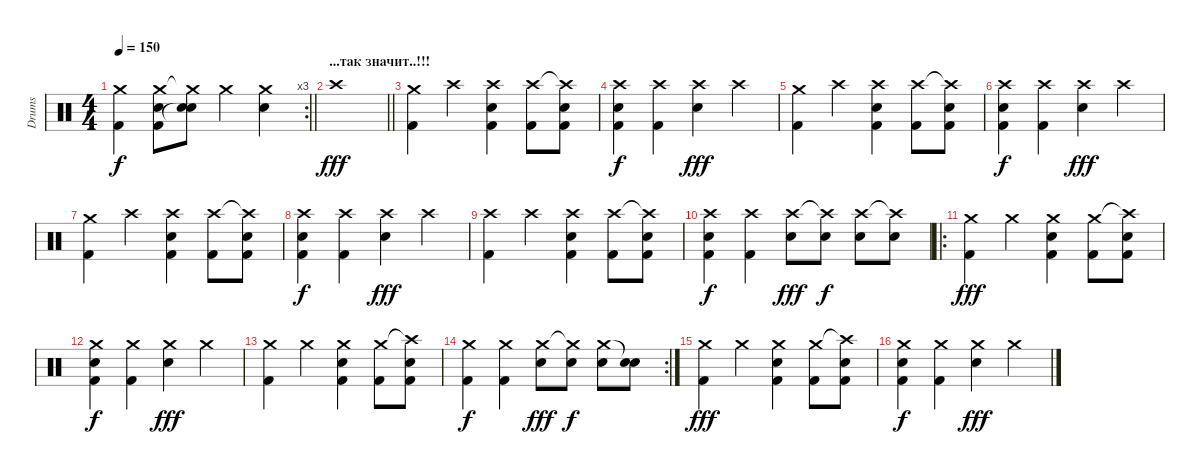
\track ("Drums" "Drums") {instrument percussion}
\staff {score}
\articulation defaults
\rc 3
\ts (4 4)
\tempo 150
\clef neutral
\barLineRight lightlight
\ks c
("Crash medium (hit)" "Kick (hit) 2").4{dy f} ("Crash medium (hit)" "Kick (hit) 2" "Electric Snare (hit)").8 ("Crash medium (hit)"{t} "Snare (hit)"{t} "Electric Snare (hit)").8 "Crash medium (hit)".4 ("Crash medium (hit)" "Electric Snare (hit)").4 |
\section ("" "...так значит..!!!")
\barLineRight lightlight "Crash high (hit)".1{dy fff}
|
("Crash medium (hit)" "Kick (hit) 2").4 "Crash high (hit)".4 ("Crash high (hit)" "Kick (hit) 2" "Electric Snare (hit)").4 ("Crash high (hit)" "Kick (hit) 2").8 ("Crash high (hit)"{t} "Kick (hit) 2" "Electric Snare (hit)").8 |
("Crash high (hit)" "Kick (hit) 2" "Electric Snare (hit)").4{dy f} ("Crash high (hit)" "Kick (hit) 2").4 ("Crash high (hit)" "Electric Snare (hit)").4{dy fff} "Crash high (hit)".4 |
("Crash medium (hit)" "Kick (hit) 2").4 "Crash high (hit)".4 ("Crash high (hit)" "Kick (hit) 2" "Electric Snare (hit)").4 ("Crash high (hit)" "Kick (hit) 2").8 ("Crash high (hit)"{t} "Kick (hit) 2" "Electric Snare (hit)").8 |
("Crash high (hit)" "Kick (hit) 2" "Electric Snare (hit)").4{dy f} ("Crash high (hit)" "Kick (hit) 2").4 ("Crash high (hit)" "Electric Snare (hit)").4{dy fff} "Crash high (hit)".4 |
("Crash medium (hit)" "Kick (hit) 2").4 "Crash high (hit)".4 ("Crash high (hit)" "Kick (hit) 2" "Electric Snare (hit)").4 ("Crash high (hit)" "Kick (hit) 2").8 ("Crash high (hit)"{t} "Kick (hit) 2" "Electric Snare (hit)").8 |
("Crash high (hit)" "Kick (hit) 2" "Electric Snare (hit)").4{dy f} ("Crash high (hit)" "Kick (hit) 2").4 ("Crash high (hit)" "Electric Snare (hit)").4{dy fff} "Crash high (hit)".4 |
("Crash high (hit)" "Kick (hit) 2").4 "Crash high (hit)".4 ("Crash high (hit)" "Kick (hit) 2" "Electric Snare (hit)").4 ("Crash high (hit)" "Kick (hit) 2").8 ("Crash high (hit)"{t} "Kick (hit) 2" "Electric Snare (hit)").8 |
("Crash high (hit)" "Kick (hit) 2" "Electric Snare (hit)").4{dy f} ("Crash high (hit)" "Kick (hit) 2").4 ("Crash high (hit)" "Electric Snare (hit)").8{dy fff} ("Crash high (hit)"{t} "Electric Snare (hit)").8{dy f} ("Crash high (hit)" "Electric Snare (hit)").8 ("Crash high (hit)"{t} "Electric Snare (hit)").8 |
\ro
("Crash medium (hit)" "Kick (hit) 2").4{dy fff} "Crash medium (hit)".4 ("Crash medium (hit)" "Kick (hit) 2" "Electric Snare (hit)").4 ("Crash medium (hit)" "Kick (hit) 2").8 ("Crash high (hit)"{t} "Kick (hit) 2" "Electric Snare (hit)").8 |
("Crash medium (hit)" "Kick (hit) 2" "Electric Snare (hit)").4{dy f} ("Crash medium (hit)" "Kick (hit) 2").4 ("Crash medium (hit)" "Electric Snare (hit)").4{dy fff} "Crash medium (hit)".4 |
("Crash medium (hit)" "Kick (hit) 2").4 "Crash medium (hit)".4 ("Crash medium (hit)" "Kick (hit) 2" "Electric Snare (hit)").4 ("Crash medium (hit)" "Kick (hit) 2").8 ("Crash high (hit)"{t} "Kick (hit) 2" "Electric Snare (hit)").8 |
\rc 2
("Crash medium (hit)" "Kick (hit) 2").4{dy f} ("Crash medium (hit)" "Kick (hit) 2").4 ("Crash medium (hit)" "Electric Snare (hit)").8{dy fff} ("Crash medium (hit)"{t} "Electric Snare (hit)").8{dy f} ("Crash medium (hit)" "Electric Snare (hit)").8 ("Snare (hit)"{t} "Electric Snare (hit)").8 |
("Crash medium (hit)" "Kick (hit) 2").4{dy fff} "Crash medium (hit)".4 ("Crash medium (hit)" "Kick (hit) 2" "Electric Snare (hit)").4 ("Crash medium (hit)" "Kick (hit) 2").8 ("Crash high (hit)"{t} "Kick (hit) 2" "Electric Snare (hit)").8 |
("Crash medium (hit)" "Kick (hit) 2" "Electric Snare (hit)").4{dy f} ("Crash medium (hit)" "Kick (hit) 2").4 ("Crash medium (hit)" "Electric Snare (hit)").4{dy fff} "Crash medium (hit)".4
